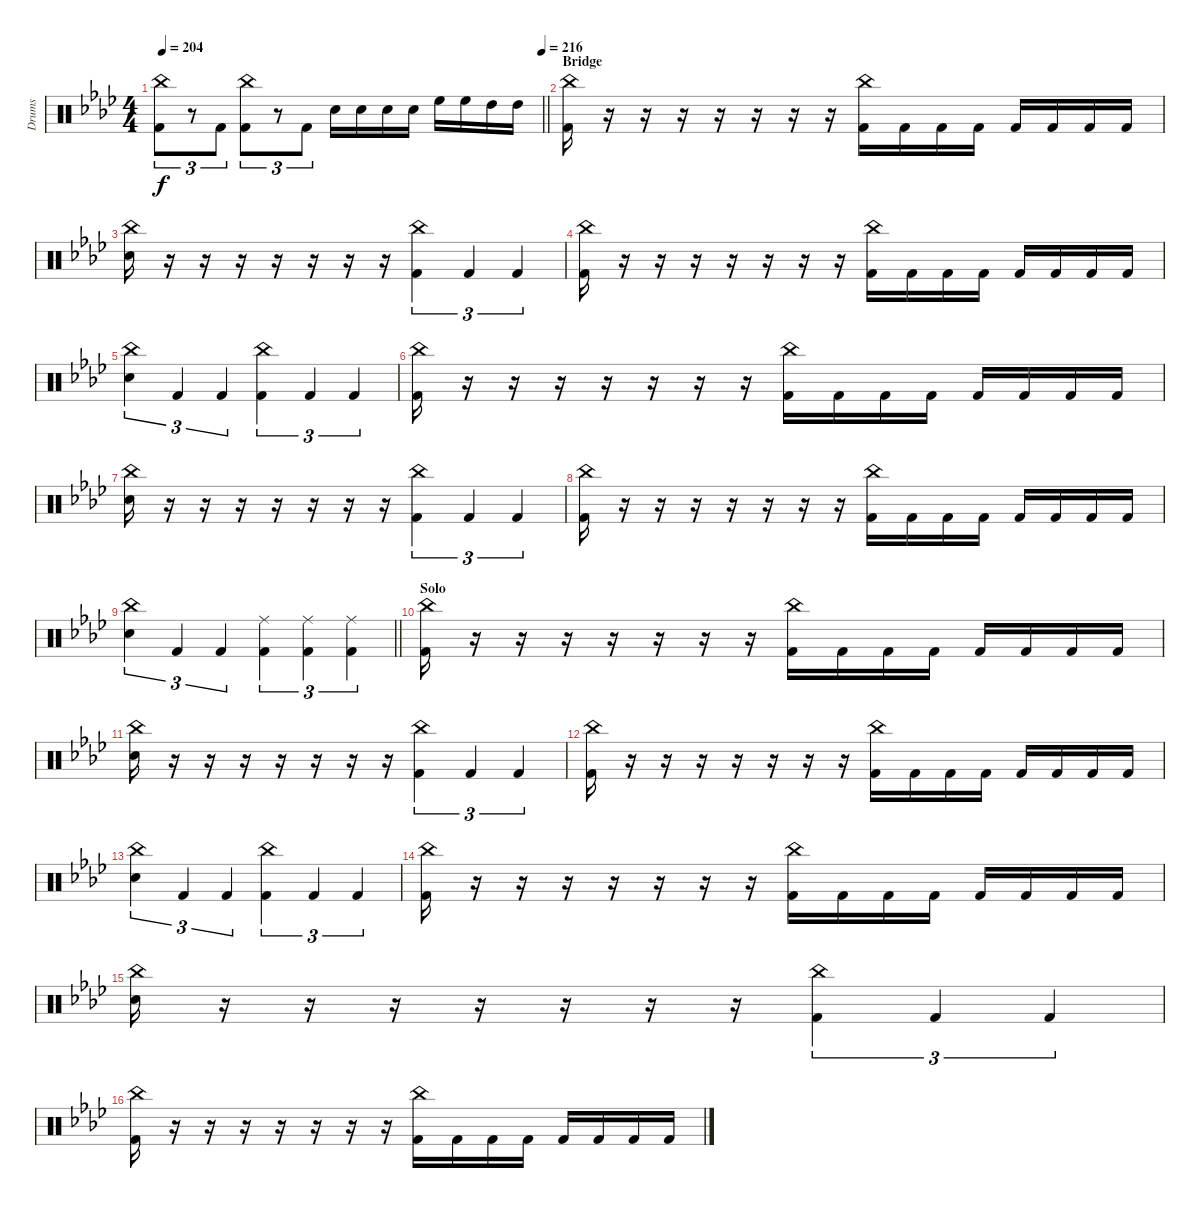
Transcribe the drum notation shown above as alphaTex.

\bracketExtendMode groupsimilarinstruments
\otherSystemsTrackNameOrientation horizontal
\track ("Guyot Begin-Benoit" "Drums") {instrument percussion}
\staff {score}
\articulation defaults
\ts (4 4)
\tempo 204
\tempo (216 1)
\clef neutral
\barLineRight lightlight
\ks ab
("China (hit)"{acc forcenatural} "Kick (hit) 2"{acc forcenatural}).8{tu (3 2) dy f beam Down} r.8{tu (3 2) beam Down} "Kick (hit) 2"{acc forcenatural}.8{tu (3 2) beam Down} ("China (hit)"{acc forcenatural} "Kick (hit) 2"{acc forcenatural}).8{tu (3 2) beam Down} r.8{tu (3 2) beam Down} "Kick (hit) 2"{acc forcenatural}.8{tu (3 2) beam Down} "Snare (hit) 2"{acc forcenatural}.16{beam Down} "Snare (hit) 2"{acc forcenatural}.16{beam Down} "Snare (hit) 2"{acc forcenatural}.16{beam Down} "Snare (hit) 2"{acc forcenatural}.16{beam Down} "High Floor Tom (hit)"{acc forcenatural}.16{beam Down} "High Floor Tom (hit)"{acc forcenatural}.16{beam Down} "High Tom (hit)"{acc forcenatural}.16{beam Down} "High Tom (hit)"{acc forcenatural}.16{beam Down} |
\section ("" "Bridge")
("China (hit)"{acc forcenatural} "Kick (hit) 2"{acc forcenatural}).16{beam Down} r.16{beam Down} r.16{beam Down} r.16{beam Down} r.16{beam Down} r.16{beam Down} r.16{beam Down} r.16{beam Down} ("China (hit)"{acc forcenatural} "Kick (hit) 2"{acc forcenatural}).16{beam Down} "Kick (hit) 2"{acc forcenatural}.16{beam Down} "Kick (hit) 2"{acc forcenatural}.16{beam Down} "Kick (hit) 2"{acc forcenatural}.16{beam Down} "Kick (hit) 2"{acc forcenatural}.16{beam Up} "Kick (hit) 2"{acc forcenatural}.16{beam Up} "Kick (hit) 2"{acc forcenatural}.16{beam Up} "Kick (hit) 2"{acc forcenatural}.16{beam Up} |
("China (hit)"{acc forcenatural} "Snare (hit) 2"{acc forcenatural}).16{beam Down} r.16{beam Down} r.16{beam Down} r.16{beam Down} r.16{beam Down} r.16{beam Down} r.16{beam Down} r.16{beam Down} ("China (hit)"{acc forcenatural} "Kick (hit) 2"{acc forcenatural}).4{tu (3 2) beam Down} "Kick (hit) 2"{acc forcenatural}.4{tu (3 2) beam Up} "Kick (hit) 2"{acc forcenatural}.4{tu (3 2) beam Up} |
("China (hit)"{acc forcenatural} "Kick (hit) 2"{acc forcenatural}).16{beam Down} r.16{beam Down} r.16{beam Down} r.16{beam Down} r.16{beam Down} r.16{beam Down} r.16{beam Down} r.16{beam Down} ("China (hit)"{acc forcenatural} "Kick (hit) 2"{acc forcenatural}).16{beam Down} "Kick (hit) 2"{acc forcenatural}.16{beam Down} "Kick (hit) 2"{acc forcenatural}.16{beam Down} "Kick (hit) 2"{acc forcenatural}.16{beam Down} "Kick (hit) 2"{acc forcenatural}.16{beam Up} "Kick (hit) 2"{acc forcenatural}.16{beam Up} "Kick (hit) 2"{acc forcenatural}.16{beam Up} "Kick (hit) 2"{acc forcenatural}.16{beam Up} |
("China (hit)"{acc forcenatural} "Snare (hit) 2"{acc forcenatural}).4{tu (3 2) beam Down} "Kick (hit) 2"{acc forcenatural}.4{tu (3 2) beam Up} "Kick (hit) 2"{acc forcenatural}.4{tu (3 2) beam Up} ("China (hit)"{acc forcenatural} "Kick (hit) 2"{acc forcenatural}).4{tu (3 2) beam Down} "Kick (hit) 2"{acc forcenatural}.4{tu (3 2) beam Up} "Kick (hit) 2"{acc forcenatural}.4{tu (3 2) beam Up} |
("China (hit)"{acc forcenatural} "Kick (hit) 2"{acc forcenatural}).16{beam Down} r.16{beam Down} r.16{beam Down} r.16{beam Down} r.16{beam Down} r.16{beam Down} r.16{beam Down} r.16{beam Down} ("China (hit)"{acc forcenatural} "Kick (hit) 2"{acc forcenatural}).16{beam Down} "Kick (hit) 2"{acc forcenatural}.16{beam Down} "Kick (hit) 2"{acc forcenatural}.16{beam Down} "Kick (hit) 2"{acc forcenatural}.16{beam Down} "Kick (hit) 2"{acc forcenatural}.16{beam Up} "Kick (hit) 2"{acc forcenatural}.16{beam Up} "Kick (hit) 2"{acc forcenatural}.16{beam Up} "Kick (hit) 2"{acc forcenatural}.16{beam Up} |
("China (hit)"{acc forcenatural} "Snare (hit) 2"{acc forcenatural}).16{beam Down} r.16{beam Down} r.16{beam Down} r.16{beam Down} r.16{beam Down} r.16{beam Down} r.16{beam Down} r.16{beam Down} ("China (hit)"{acc forcenatural} "Kick (hit) 2"{acc forcenatural}).4{tu (3 2) beam Down} "Kick (hit) 2"{acc forcenatural}.4{tu (3 2) beam Up} "Kick (hit) 2"{acc forcenatural}.4{tu (3 2) beam Up} |
("China (hit)"{acc forcenatural} "Kick (hit) 2"{acc forcenatural}).16{beam Down} r.16{beam Down} r.16{beam Down} r.16{beam Down} r.16{beam Down} r.16{beam Down} r.16{beam Down} r.16{beam Down} ("China (hit)"{acc forcenatural} "Kick (hit) 2"{acc forcenatural}).16{beam Down} "Kick (hit) 2"{acc forcenatural}.16{beam Down} "Kick (hit) 2"{acc forcenatural}.16{beam Down} "Kick (hit) 2"{acc forcenatural}.16{beam Down} "Kick (hit) 2"{acc forcenatural}.16{beam Up} "Kick (hit) 2"{acc forcenatural}.16{beam Up} "Kick (hit) 2"{acc forcenatural}.16{beam Up} "Kick (hit) 2"{acc forcenatural}.16{beam Up} |
\barLineRight lightlight
("China (hit)"{acc forcenatural} "Snare (hit) 2"{acc forcenatural}).4{tu (3 2) beam Down} "Kick (hit) 2"{acc forcenatural}.4{tu (3 2) beam Up} "Kick (hit) 2"{acc forcenatural}.4{tu (3 2) beam Up} ("Ride (middle)"{acc forcenatural} "Kick (hit) 2"{acc forcenatural}).4{tu (3 2) beam Down} ("Ride (middle)"{acc forcenatural} "Kick (hit) 2"{acc forcenatural}).4{tu (3 2) beam Down} ("Ride (middle)"{acc forcenatural} "Kick (hit) 2"{acc forcenatural}).4{tu (3 2) beam Down} |
\section ("" "Solo")
("China (hit)"{acc forcenatural} "Kick (hit) 2"{acc forcenatural}).16{beam Down} r.16{beam Down} r.16{beam Down} r.16{beam Down} r.16{beam Down} r.16{beam Down} r.16{beam Down} r.16{beam Down} ("China (hit)"{acc forcenatural} "Kick (hit) 2"{acc forcenatural}).16{beam Down} "Kick (hit) 2"{acc forcenatural}.16{beam Down} "Kick (hit) 2"{acc forcenatural}.16{beam Down} "Kick (hit) 2"{acc forcenatural}.16{beam Down} "Kick (hit) 2"{acc forcenatural}.16{beam Up} "Kick (hit) 2"{acc forcenatural}.16{beam Up} "Kick (hit) 2"{acc forcenatural}.16{beam Up} "Kick (hit) 2"{acc forcenatural}.16{beam Up} |
("China (hit)"{acc forcenatural} "Snare (hit) 2"{acc forcenatural}).16{beam Down} r.16{beam Down} r.16{beam Down} r.16{beam Down} r.16{beam Down} r.16{beam Down} r.16{beam Down} r.16{beam Down} ("China (hit)"{acc forcenatural} "Kick (hit) 2"{acc forcenatural}).4{tu (3 2) beam Down} "Kick (hit) 2"{acc forcenatural}.4{tu (3 2) beam Up} "Kick (hit) 2"{acc forcenatural}.4{tu (3 2) beam Up} |
("China (hit)"{acc forcenatural} "Kick (hit) 2"{acc forcenatural}).16{beam Down} r.16{beam Down} r.16{beam Down} r.16{beam Down} r.16{beam Down} r.16{beam Down} r.16{beam Down} r.16{beam Down} ("China (hit)"{acc forcenatural} "Kick (hit) 2"{acc forcenatural}).16{beam Down} "Kick (hit) 2"{acc forcenatural}.16{beam Down} "Kick (hit) 2"{acc forcenatural}.16{beam Down} "Kick (hit) 2"{acc forcenatural}.16{beam Down} "Kick (hit) 2"{acc forcenatural}.16{beam Up} "Kick (hit) 2"{acc forcenatural}.16{beam Up} "Kick (hit) 2"{acc forcenatural}.16{beam Up} "Kick (hit) 2"{acc forcenatural}.16{beam Up} |
("China (hit)"{acc forcenatural} "Snare (hit) 2"{acc forcenatural}).4{tu (3 2) beam Down} "Kick (hit) 2"{acc forcenatural}.4{tu (3 2) beam Up} "Kick (hit) 2"{acc forcenatural}.4{tu (3 2) beam Up} ("China (hit)"{acc forcenatural} "Kick (hit) 2"{acc forcenatural}).4{tu (3 2) beam Down} "Kick (hit) 2"{acc forcenatural}.4{tu (3 2) beam Up} "Kick (hit) 2"{acc forcenatural}.4{tu (3 2) beam Up} |
("China (hit)"{acc forcenatural} "Kick (hit) 2"{acc forcenatural}).16{beam Down} r.16{beam Down} r.16{beam Down} r.16{beam Down} r.16{beam Down} r.16{beam Down} r.16{beam Down} r.16{beam Down} ("China (hit)"{acc forcenatural} "Kick (hit) 2"{acc forcenatural}).16{beam Down} "Kick (hit) 2"{acc forcenatural}.16{beam Down} "Kick (hit) 2"{acc forcenatural}.16{beam Down} "Kick (hit) 2"{acc forcenatural}.16{beam Down} "Kick (hit) 2"{acc forcenatural}.16{beam Up} "Kick (hit) 2"{acc forcenatural}.16{beam Up} "Kick (hit) 2"{acc forcenatural}.16{beam Up} "Kick (hit) 2"{acc forcenatural}.16{beam Up} |
("China (hit)"{acc forcenatural} "Snare (hit) 2"{acc forcenatural}).16{beam Down} r.16{beam Down} r.16{beam Down} r.16{beam Down} r.16{beam Down} r.16{beam Down} r.16{beam Down} r.16{beam Down} ("China (hit)"{acc forcenatural} "Kick (hit) 2"{acc forcenatural}).4{tu (3 2) beam Down} "Kick (hit) 2"{acc forcenatural}.4{tu (3 2) beam Up} "Kick (hit) 2"{acc forcenatural}.4{tu (3 2) beam Up} |
("China (hit)"{acc forcenatural} "Kick (hit) 2"{acc forcenatural}).16{beam Down} r.16{beam Down} r.16{beam Down} r.16{beam Down} r.16{beam Down} r.16{beam Down} r.16{beam Down} r.16{beam Down} ("China (hit)"{acc forcenatural} "Kick (hit) 2"{acc forcenatural}).16{beam Down} "Kick (hit) 2"{acc forcenatural}.16{beam Down} "Kick (hit) 2"{acc forcenatural}.16{beam Down} "Kick (hit) 2"{acc forcenatural}.16{beam Down} "Kick (hit) 2"{acc forcenatural}.16{beam Up} "Kick (hit) 2"{acc forcenatural}.16{beam Up} "Kick (hit) 2"{acc forcenatural}.16{beam Up} "Kick (hit) 2"{acc forcenatural}.16{beam Up}
